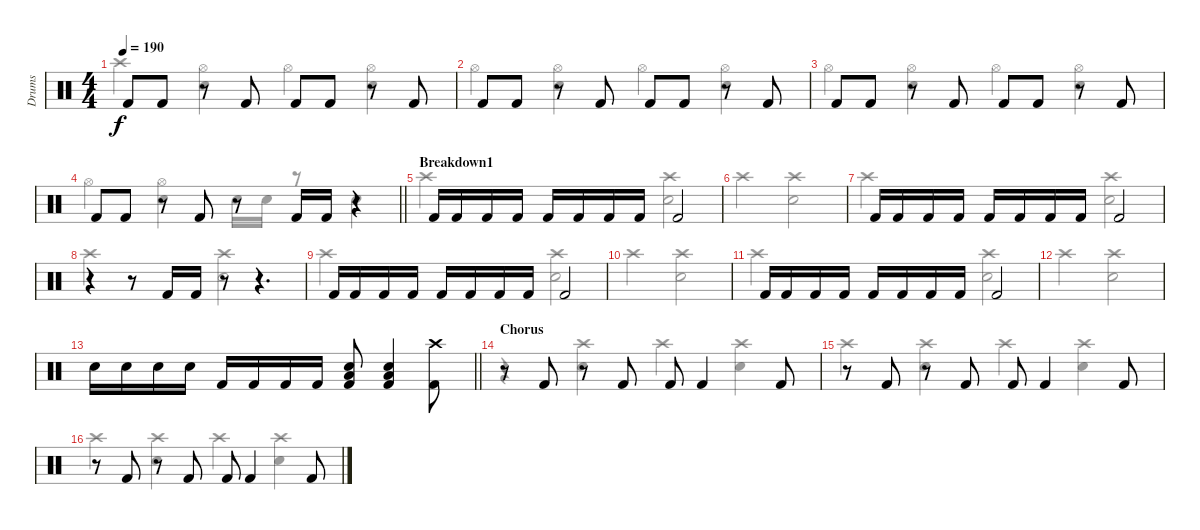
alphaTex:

\track ("Drums" "Drums") {instrument percussion}
\staff {score}
\articulation defaults
\voice
\ts (4 4)
\tempo 190
\clef neutral
\ks c "Kick (hit) 2".8{dy f} "Kick (hit) 2".8
r.8 "Kick (hit) 2".8 "Kick (hit) 2".8 "Kick (hit) 2".8 r.8 "Kick (hit) 2".8 |
"Kick (hit) 2".8 "Kick (hit) 2".8 r.8 "Kick (hit) 2".8 "Kick (hit) 2".8 "Kick (hit) 2".8 r.8 "Kick (hit) 2".8 |
"Kick (hit) 2".8 "Kick (hit) 2".8 r.8 "Kick (hit) 2".8 "Kick (hit) 2".8 "Kick (hit) 2".8 r.8 "Kick (hit) 2".8 |
\barLineRight lightlight "Kick (hit) 2".8 "Kick (hit) 2".8
r.8 "Kick (hit) 2".8 r.8 "Kick (hit) 2".16 "Kick (hit) 2".16 r.4 |
\section ("" "Breakdown1")
"Kick (hit) 2".16 "Kick (hit) 2".16 "Kick (hit) 2".16 "Kick (hit) 2".16 "Kick (hit) 2".16 "Kick (hit) 2".16 "Kick (hit) 2".16 "Kick (hit) 2".16 "Kick (hit) 2".2 |
|
"Kick (hit) 2".16 "Kick (hit) 2".16 "Kick (hit) 2".16 "Kick (hit) 2".16 "Kick (hit) 2".16 "Kick (hit) 2".16 "Kick (hit) 2".16 "Kick (hit) 2".16 "Kick (hit) 2".2 |
r.4 r.8 "Kick (hit) 2".16 "Kick (hit) 2".16 r.8 r.4{d} |
"Kick (hit) 2".16 "Kick (hit) 2".16 "Kick (hit) 2".16 "Kick (hit) 2".16 "Kick (hit) 2".16 "Kick (hit) 2".16 "Kick (hit) 2".16 "Kick (hit) 2".16 "Kick (hit) 2".2 |
|
"Kick (hit) 2".16 "Kick (hit) 2".16 "Kick (hit) 2".16 "Kick (hit) 2".16 "Kick (hit) 2".16 "Kick (hit) 2".16 "Kick (hit) 2".16 "Kick (hit) 2".16 "Kick (hit) 2".2 |
|
\barLineRight lightlight "Electric Snare (hit)".16 "Electric Snare (hit)".16 "Electric Snare (hit)".16 "Electric Snare (hit)".16 "Kick (hit) 2".16 "Kick (hit) 2".16 "Kick (hit) 2".16 "Kick (hit) 2".16
("Kick (hit) 2" "Low Floor Tom (hit)" "Electric Snare (hit)").8 ("Kick (hit) 2" "Low Floor Tom (hit)" "Electric Snare (hit)").4 ("Kick (hit) 2" "Crash high (hit)").8 |
\section ("" "Chorus")
r.8 "Kick (hit) 2".8 r.8 "Kick (hit) 2".8 "Kick (hit) 2".8 "Kick (hit) 2".4 "Kick (hit) 2".8 |
r.8 "Kick (hit) 2".8 r.8 "Kick (hit) 2".8 "Kick (hit) 2".8 "Kick (hit) 2".4 "Kick (hit) 2".8 |
r.8 "Kick (hit) 2".8 r.8 "Kick (hit) 2".8 "Kick (hit) 2".8 "Kick (hit) 2".4 "Kick (hit) 2".8
\voice
\clef neutral
\ottava regular
\simile none
\ks c "Crash high (hit)".4{dy f}
("Electric Snare (hit)" "Hi-Hat (open)").4 "Hi-Hat (open)".4 ("Electric Snare (hit)" "Hi-Hat (open)").4 |
"Hi-Hat (open)".4 ("Electric Snare (hit)" "Hi-Hat (open)").4 "Hi-Hat (open)".4 ("Electric Snare (hit)" "Hi-Hat (open)").4 |
"Hi-Hat (open)".4 ("Electric Snare (hit)" "Hi-Hat (open)").4 "Hi-Hat (open)".4 ("Electric Snare (hit)" "Hi-Hat (open)").4 |
\barLineRight lightlight "Hi-Hat (open)".4
("Electric Snare (hit)" "Hi-Hat (open)").4 "Electric Snare (hit)".16 "Electric Snare (hit)".16 r.8 "Electric Snare (hit)".4 |
"Crash high (hit)".2 ("Electric Snare (hit)" "Crash high (hit)").2 |
"Crash high (hit)".2 ("Electric Snare (hit)" "Crash high (hit)").2 |
"Crash high (hit)".2 ("Electric Snare (hit)" "Crash high (hit)").2 |
"Crash high (hit)".2 ("Electric Snare (hit)" "Crash high (hit)").2 |
"Crash high (hit)".2 ("Electric Snare (hit)" "Crash high (hit)").2 |
"Crash high (hit)".2 ("Electric Snare (hit)" "Crash high (hit)").2 |
"Crash high (hit)".2 ("Electric Snare (hit)" "Crash high (hit)").2 |
"Crash high (hit)".2 ("Electric Snare (hit)" "Crash high (hit)").2 |
\barLineRight lightlight
|
r.4 ("Electric Snare (hit)" "Crash high (hit)").4 "Crash high (hit)".4 ("Electric Snare (hit)" "Crash high (hit)").4 |
"Crash high (hit)".4 ("Electric Snare (hit)" "Crash high (hit)").4 "Crash high (hit)".4 ("Electric Snare (hit)" "Crash high (hit)").4 |
"Crash high (hit)".4 ("Electric Snare (hit)" "Crash high (hit)").4 "Crash high (hit)".4 ("Electric Snare (hit)" "Crash high (hit)").4
